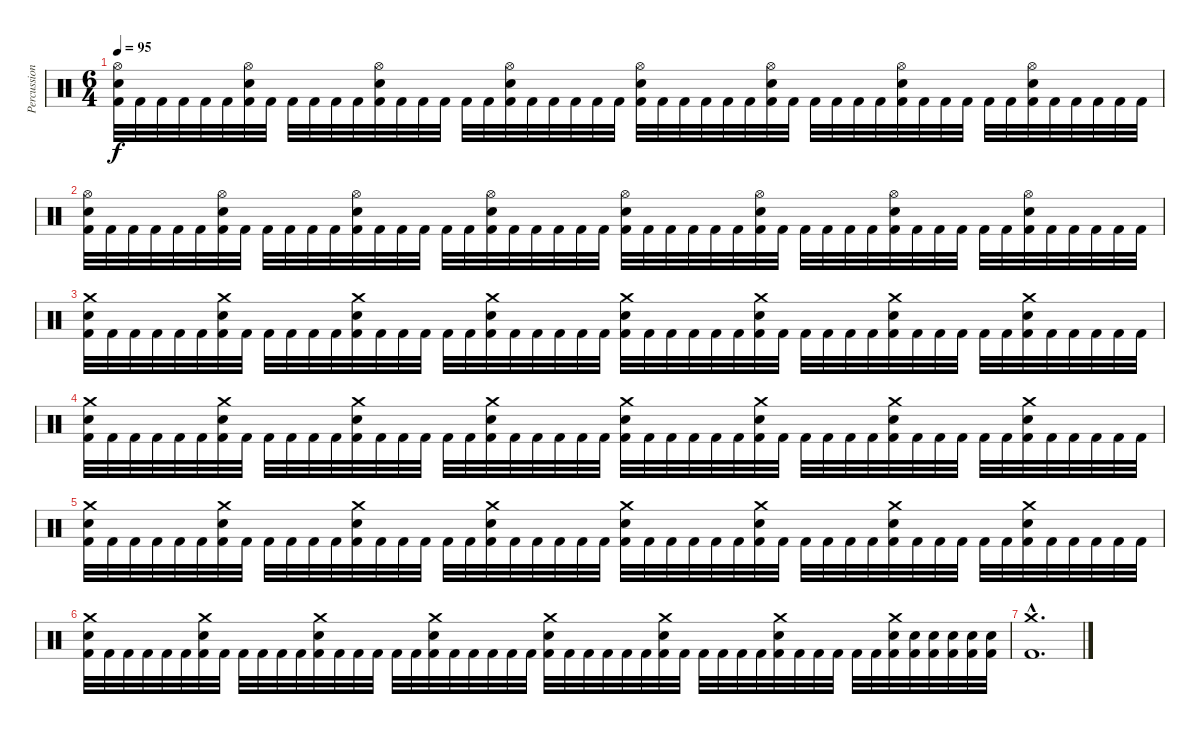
\track ("Percussion" "Percussion") {instrument percussion}
\staff {score}
\articulation defaults
\ts (6 4)
\tempo 95
\clef neutral
\ks c
("Hi-Hat (open)" "Electric Snare (hit)" "Kick (hit) 2").32{dy f} "Kick (hit) 2".32 "Kick (hit) 2".32 "Kick (hit) 2".32 "Kick (hit) 2".32 "Kick (hit) 2".32 ("Hi-Hat (open)" "Electric Snare (hit)" "Kick (hit) 2").32 "Kick (hit) 2".32 "Kick (hit) 2".32 "Kick (hit) 2".32 "Kick (hit) 2".32 "Kick (hit) 2".32 ("Hi-Hat (open)" "Electric Snare (hit)" "Kick (hit) 2").32 "Kick (hit) 2".32 "Kick (hit) 2".32 "Kick (hit) 2".32 "Kick (hit) 2".32 "Kick (hit) 2".32 ("Hi-Hat (open)" "Electric Snare (hit)" "Kick (hit) 2").32 "Kick (hit) 2".32 "Kick (hit) 2".32 "Kick (hit) 2".32 "Kick (hit) 2".32 "Kick (hit) 2".32 ("Hi-Hat (open)" "Electric Snare (hit)" "Kick (hit) 2").32 "Kick (hit) 2".32 "Kick (hit) 2".32 "Kick (hit) 2".32 "Kick (hit) 2".32 "Kick (hit) 2".32 ("Hi-Hat (open)" "Electric Snare (hit)" "Kick (hit) 2").32 "Kick (hit) 2".32 "Kick (hit) 2".32 "Kick (hit) 2".32 "Kick (hit) 2".32 "Kick (hit) 2".32 ("Hi-Hat (open)" "Electric Snare (hit)" "Kick (hit) 2").32 "Kick (hit) 2".32 "Kick (hit) 2".32 "Kick (hit) 2".32 "Kick (hit) 2".32 "Kick (hit) 2".32 ("Hi-Hat (open)" "Electric Snare (hit)" "Kick (hit) 2").32 "Kick (hit) 2".32 "Kick (hit) 2".32 "Kick (hit) 2".32 "Kick (hit) 2".32 "Kick (hit) 2".32 |
("Hi-Hat (open)" "Electric Snare (hit)" "Kick (hit) 2").32 "Kick (hit) 2".32 "Kick (hit) 2".32 "Kick (hit) 2".32 "Kick (hit) 2".32 "Kick (hit) 2".32 ("Hi-Hat (open)" "Electric Snare (hit)" "Kick (hit) 2").32 "Kick (hit) 2".32 "Kick (hit) 2".32 "Kick (hit) 2".32 "Kick (hit) 2".32 "Kick (hit) 2".32 ("Hi-Hat (open)" "Electric Snare (hit)" "Kick (hit) 2").32 "Kick (hit) 2".32 "Kick (hit) 2".32 "Kick (hit) 2".32 "Kick (hit) 2".32 "Kick (hit) 2".32 ("Hi-Hat (open)" "Electric Snare (hit)" "Kick (hit) 2").32 "Kick (hit) 2".32 "Kick (hit) 2".32 "Kick (hit) 2".32 "Kick (hit) 2".32 "Kick (hit) 2".32 ("Hi-Hat (open)" "Electric Snare (hit)" "Kick (hit) 2").32 "Kick (hit) 2".32 "Kick (hit) 2".32 "Kick (hit) 2".32 "Kick (hit) 2".32 "Kick (hit) 2".32 ("Hi-Hat (open)" "Electric Snare (hit)" "Kick (hit) 2").32 "Kick (hit) 2".32 "Kick (hit) 2".32 "Kick (hit) 2".32 "Kick (hit) 2".32 "Kick (hit) 2".32 ("Hi-Hat (open)" "Electric Snare (hit)" "Kick (hit) 2").32 "Kick (hit) 2".32 "Kick (hit) 2".32 "Kick (hit) 2".32 "Kick (hit) 2".32 "Kick (hit) 2".32 ("Hi-Hat (open)" "Electric Snare (hit)" "Kick (hit) 2").32 "Kick (hit) 2".32 "Kick (hit) 2".32 "Kick (hit) 2".32 "Kick (hit) 2".32 "Kick (hit) 2".32 |
("Crash medium (hit)" "Electric Snare (hit)" "Kick (hit) 2").32 "Kick (hit) 2".32 "Kick (hit) 2".32 "Kick (hit) 2".32 "Kick (hit) 2".32 "Kick (hit) 2".32 ("Crash medium (hit)" "Electric Snare (hit)" "Kick (hit) 2").32 "Kick (hit) 2".32 "Kick (hit) 2".32 "Kick (hit) 2".32 "Kick (hit) 2".32 "Kick (hit) 2".32 ("Crash medium (hit)" "Electric Snare (hit)" "Kick (hit) 2").32 "Kick (hit) 2".32 "Kick (hit) 2".32 "Kick (hit) 2".32 "Kick (hit) 2".32 "Kick (hit) 2".32 ("Crash medium (hit)" "Electric Snare (hit)" "Kick (hit) 2").32 "Kick (hit) 2".32 "Kick (hit) 2".32 "Kick (hit) 2".32 "Kick (hit) 2".32 "Kick (hit) 2".32 ("Crash medium (hit)" "Electric Snare (hit)" "Kick (hit) 2").32 "Kick (hit) 2".32 "Kick (hit) 2".32 "Kick (hit) 2".32 "Kick (hit) 2".32 "Kick (hit) 2".32 ("Crash medium (hit)" "Electric Snare (hit)" "Kick (hit) 2").32 "Kick (hit) 2".32 "Kick (hit) 2".32 "Kick (hit) 2".32 "Kick (hit) 2".32 "Kick (hit) 2".32 ("Crash medium (hit)" "Electric Snare (hit)" "Kick (hit) 2").32 "Kick (hit) 2".32 "Kick (hit) 2".32 "Kick (hit) 2".32 "Kick (hit) 2".32 "Kick (hit) 2".32 ("Crash medium (hit)" "Electric Snare (hit)" "Kick (hit) 2").32 "Kick (hit) 2".32 "Kick (hit) 2".32 "Kick (hit) 2".32 "Kick (hit) 2".32 "Kick (hit) 2".32 |
("Crash medium (hit)" "Electric Snare (hit)" "Kick (hit) 2").32 "Kick (hit) 2".32 "Kick (hit) 2".32 "Kick (hit) 2".32 "Kick (hit) 2".32 "Kick (hit) 2".32 ("Crash medium (hit)" "Electric Snare (hit)" "Kick (hit) 2").32 "Kick (hit) 2".32 "Kick (hit) 2".32 "Kick (hit) 2".32 "Kick (hit) 2".32 "Kick (hit) 2".32 ("Crash medium (hit)" "Electric Snare (hit)" "Kick (hit) 2").32 "Kick (hit) 2".32 "Kick (hit) 2".32 "Kick (hit) 2".32 "Kick (hit) 2".32 "Kick (hit) 2".32 ("Crash medium (hit)" "Electric Snare (hit)" "Kick (hit) 2").32 "Kick (hit) 2".32 "Kick (hit) 2".32 "Kick (hit) 2".32 "Kick (hit) 2".32 "Kick (hit) 2".32 ("Crash medium (hit)" "Electric Snare (hit)" "Kick (hit) 2").32 "Kick (hit) 2".32 "Kick (hit) 2".32 "Kick (hit) 2".32 "Kick (hit) 2".32 "Kick (hit) 2".32 ("Crash medium (hit)" "Electric Snare (hit)" "Kick (hit) 2").32 "Kick (hit) 2".32 "Kick (hit) 2".32 "Kick (hit) 2".32 "Kick (hit) 2".32 "Kick (hit) 2".32 ("Crash medium (hit)" "Electric Snare (hit)" "Kick (hit) 2").32 "Kick (hit) 2".32 "Kick (hit) 2".32 "Kick (hit) 2".32 "Kick (hit) 2".32 "Kick (hit) 2".32 ("Crash medium (hit)" "Electric Snare (hit)" "Kick (hit) 2").32 "Kick (hit) 2".32 "Kick (hit) 2".32 "Kick (hit) 2".32 "Kick (hit) 2".32 "Kick (hit) 2".32 |
("Crash medium (hit)" "Electric Snare (hit)" "Kick (hit) 2").32 "Kick (hit) 2".32 "Kick (hit) 2".32 "Kick (hit) 2".32 "Kick (hit) 2".32 "Kick (hit) 2".32 ("Crash medium (hit)" "Electric Snare (hit)" "Kick (hit) 2").32 "Kick (hit) 2".32 "Kick (hit) 2".32 "Kick (hit) 2".32 "Kick (hit) 2".32 "Kick (hit) 2".32 ("Crash medium (hit)" "Electric Snare (hit)" "Kick (hit) 2").32 "Kick (hit) 2".32 "Kick (hit) 2".32 "Kick (hit) 2".32 "Kick (hit) 2".32 "Kick (hit) 2".32 ("Crash medium (hit)" "Electric Snare (hit)" "Kick (hit) 2").32 "Kick (hit) 2".32 "Kick (hit) 2".32 "Kick (hit) 2".32 "Kick (hit) 2".32 "Kick (hit) 2".32 ("Crash medium (hit)" "Electric Snare (hit)" "Kick (hit) 2").32 "Kick (hit) 2".32 "Kick (hit) 2".32 "Kick (hit) 2".32 "Kick (hit) 2".32 "Kick (hit) 2".32 ("Crash medium (hit)" "Electric Snare (hit)" "Kick (hit) 2").32 "Kick (hit) 2".32 "Kick (hit) 2".32 "Kick (hit) 2".32 "Kick (hit) 2".32 "Kick (hit) 2".32 ("Crash medium (hit)" "Electric Snare (hit)" "Kick (hit) 2").32 "Kick (hit) 2".32 "Kick (hit) 2".32 "Kick (hit) 2".32 "Kick (hit) 2".32 "Kick (hit) 2".32 ("Crash medium (hit)" "Electric Snare (hit)" "Kick (hit) 2").32 "Kick (hit) 2".32 "Kick (hit) 2".32 "Kick (hit) 2".32 "Kick (hit) 2".32 "Kick (hit) 2".32 |
("Crash medium (hit)" "Electric Snare (hit)" "Kick (hit) 2").32 "Kick (hit) 2".32 "Kick (hit) 2".32 "Kick (hit) 2".32 "Kick (hit) 2".32 "Kick (hit) 2".32 ("Crash medium (hit)" "Electric Snare (hit)" "Kick (hit) 2").32 "Kick (hit) 2".32 "Kick (hit) 2".32 "Kick (hit) 2".32 "Kick (hit) 2".32 "Kick (hit) 2".32 ("Crash medium (hit)" "Electric Snare (hit)" "Kick (hit) 2").32 "Kick (hit) 2".32 "Kick (hit) 2".32 "Kick (hit) 2".32 "Kick (hit) 2".32 "Kick (hit) 2".32 ("Crash medium (hit)" "Electric Snare (hit)" "Kick (hit) 2").32 "Kick (hit) 2".32 "Kick (hit) 2".32 "Kick (hit) 2".32 "Kick (hit) 2".32 "Kick (hit) 2".32 ("Crash medium (hit)" "Electric Snare (hit)" "Kick (hit) 2").32 "Kick (hit) 2".32 "Kick (hit) 2".32 "Kick (hit) 2".32 "Kick (hit) 2".32 "Kick (hit) 2".32 ("Crash medium (hit)" "Electric Snare (hit)" "Kick (hit) 2").32 "Kick (hit) 2".32 "Kick (hit) 2".32 "Kick (hit) 2".32 "Kick (hit) 2".32 "Kick (hit) 2".32 ("Crash medium (hit)" "Electric Snare (hit)" "Kick (hit) 2").32 "Kick (hit) 2".32 "Kick (hit) 2".32 "Kick (hit) 2".32 "Kick (hit) 2".32 "Kick (hit) 2".32 ("Crash medium (hit)" "Electric Snare (hit)" "Kick (hit) 2").32 ("Electric Snare (hit)" "Kick (hit) 2").32 ("Electric Snare (hit)" "Kick (hit) 2").32 ("Electric Snare (hit)" "Kick (hit) 2").32 ("Electric Snare (hit)" "Kick (hit) 2").32 ("Electric Snare (hit)" "Kick (hit) 2").32 |
("Crash medium (hit)"{hac} "Kick (hit) 2"{hac}).1{d}
